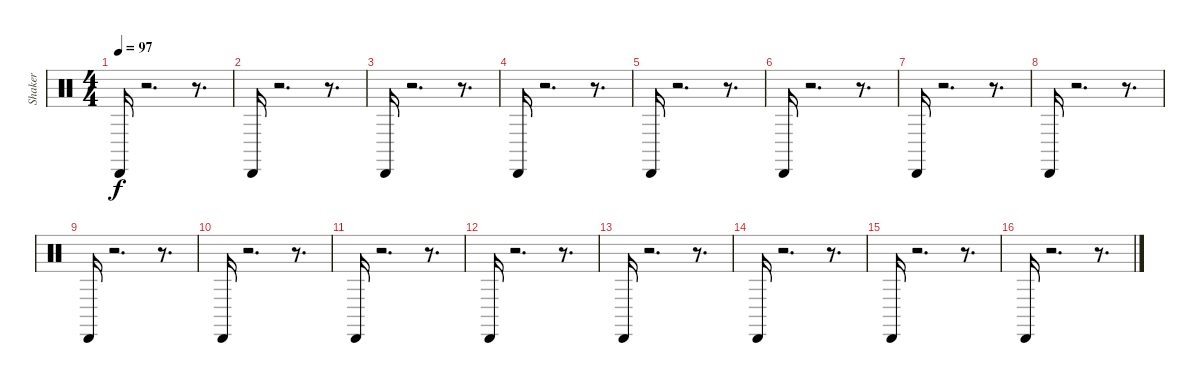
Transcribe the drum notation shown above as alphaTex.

\track ("Shaker" "Shaker") {instrument percussion}
\staff {score}
\articulation defaults
\ts (4 4)
\tempo 97
\clef neutral
\ks c "Cabasa (hit)".16{dy f}
r.2{d} r.8{d} |
"Cabasa (hit)".16 r.2{d} r.8{d} |
"Cabasa (hit)".16 r.2{d} r.8{d} |
"Cabasa (hit)".16 r.2{d} r.8{d} |
"Cabasa (hit)".16 r.2{d} r.8{d} |
"Cabasa (hit)".16 r.2{d} r.8{d} |
"Cabasa (hit)".16 r.2{d} r.8{d} |
"Cabasa (hit)".16 r.2{d} r.8{d} |
"Cabasa (hit)".16 r.2{d} r.8{d} |
"Cabasa (hit)".16 r.2{d} r.8{d} |
"Cabasa (hit)".16 r.2{d} r.8{d} |
"Cabasa (hit)".16 r.2{d} r.8{d} |
"Cabasa (hit)".16 r.2{d} r.8{d} |
"Cabasa (hit)".16 r.2{d} r.8{d} |
"Cabasa (hit)".16 r.2{d} r.8{d} |
"Cabasa (hit)".16 r.2{d} r.8{d}
